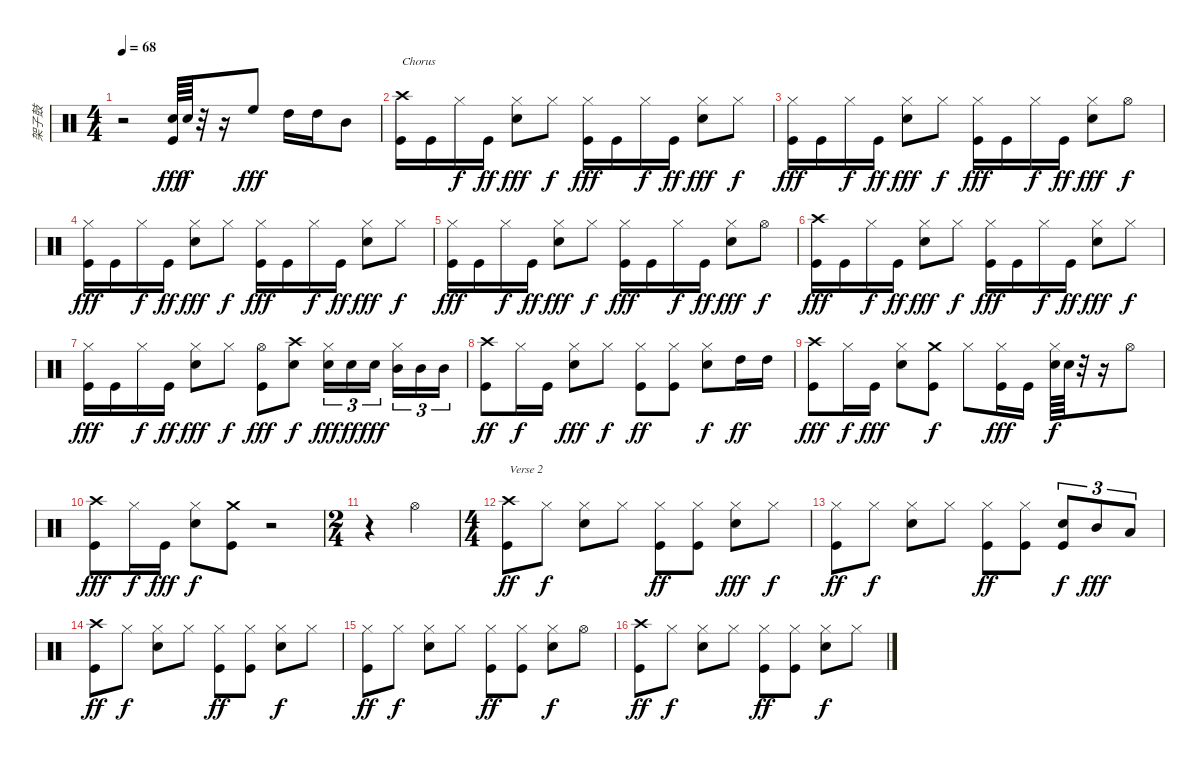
\track ("架子鼓" "架子鼓") {instrument percussion}
\staff {score}
\articulation defaults
\ts (4 4)
\tempo 68
\clef neutral
\ks c
r.2{dy f} ("Snare (hit) 2" "Kick (hit)").64{dy fff} "Snare (hit) 2".64{dy f} r.32 r.16 "High Floor Tom (hit)".8{dy fff} "High Tom (hit)".16 "High Tom (hit)".16 "Mid Tom (hit)".8 |
("Crash high (hit)" "Kick (hit)").16{txt "Chorus"} "Kick (hit)".16 "Hi-Hat (closed)".16{dy f} "Kick (hit)".16{dy ff} ("Hi-Hat (closed)" "Snare (hit) 2").8{dy fff} "Hi-Hat (closed)".8{dy f} ("Hi-Hat (closed)" "Kick (hit)").16{dy fff} "Kick (hit)".16 "Hi-Hat (closed)".16{dy f} "Kick (hit)".16{dy ff} ("Hi-Hat (closed)" "Snare (hit) 2").8{dy fff} "Hi-Hat (closed)".8{dy f} |
("Hi-Hat (closed)" "Kick (hit)").16{dy fff} "Kick (hit)".16 "Hi-Hat (closed)".16{dy f} "Kick (hit)".16{dy ff} ("Hi-Hat (closed)" "Snare (hit) 2").8{dy fff} "Hi-Hat (closed)".8{dy f} ("Hi-Hat (closed)" "Kick (hit)").16{dy fff} "Kick (hit)".16 "Hi-Hat (closed)".16{dy f} "Kick (hit)".16{dy ff} ("Hi-Hat (closed)" "Snare (hit) 2").8{dy fff} "Hi-Hat (open)".8{dy f} |
("Hi-Hat (closed)" "Kick (hit)").16{dy fff} "Kick (hit)".16 "Hi-Hat (closed)".16{dy f} "Kick (hit)".16{dy ff} ("Hi-Hat (closed)" "Snare (hit) 2").8{dy fff} "Hi-Hat (closed)".8{dy f} ("Hi-Hat (closed)" "Kick (hit)").16{dy fff} "Kick (hit)".16 "Hi-Hat (closed)".16{dy f} "Kick (hit)".16{dy ff} ("Hi-Hat (closed)" "Snare (hit) 2").8{dy fff} "Hi-Hat (closed)".8{dy f} |
("Hi-Hat (closed)" "Kick (hit)").16{dy fff} "Kick (hit)".16 "Hi-Hat (closed)".16{dy f} "Kick (hit)".16{dy ff} ("Hi-Hat (closed)" "Snare (hit) 2").8{dy fff} "Hi-Hat (closed)".8{dy f} ("Hi-Hat (closed)" "Kick (hit)").16{dy fff} "Kick (hit)".16 "Hi-Hat (closed)".16{dy f} "Kick (hit)".16{dy ff} ("Hi-Hat (closed)" "Snare (hit) 2").8{dy fff} "Hi-Hat (open)".8{dy f} |
("Crash high (hit)" "Kick (hit)").16{dy fff} "Kick (hit)".16 "Hi-Hat (closed)".16{dy f} "Kick (hit)".16{dy ff} ("Hi-Hat (closed)" "Snare (hit) 2").8{dy fff} "Hi-Hat (closed)".8{dy f} ("Hi-Hat (closed)" "Kick (hit)").16{dy fff} "Kick (hit)".16 "Hi-Hat (closed)".16{dy f} "Kick (hit)".16{dy ff} ("Hi-Hat (closed)" "Snare (hit) 2").8{dy fff} "Hi-Hat (closed)".8{dy f} |
("Hi-Hat (closed)" "Kick (hit)").16{dy fff} "Kick (hit)".16 "Hi-Hat (closed)".16{dy f} "Kick (hit)".16{dy ff} ("Hi-Hat (closed)" "Snare (hit) 2").8{dy fff} "Hi-Hat (closed)".8{dy f} ("Hi-Hat (open)" "Kick (hit)").8{dy fff} ("Crash high (hit)" "Snare (hit) 2").8{dy f} ("Hi-Hat (closed)" "Snare (hit) 2").16{tu (3 2) dy fff} "Snare (hit) 2".16{tu (3 2) dy ff} "Snare (hit) 2".16{tu (3 2) dy fff} ("Hi-Hat (closed)" "Mid Tom (hit)").16{tu (3 2)} "Mid Tom (hit)".16{tu (3 2)} "Mid Tom (hit)".16{tu (3 2)} |
("Crash high (hit)" "Kick (hit)").8{dy ff} "Hi-Hat (closed)".16{dy f} "Kick (hit)".16 ("Hi-Hat (closed)" "Snare (hit) 2").8{dy fff} "Hi-Hat (closed)".8{dy f} ("Hi-Hat (closed)" "Kick (hit)").8{dy ff} ("Hi-Hat (closed)" "Kick (hit)").8 ("Hi-Hat (closed)" "Snare (hit) 2").8{dy f} "High Tom (hit)".16{dy ff} "High Tom (hit)".16 |
("Crash high (hit)" "Kick (hit)").8{dy fff} "Hi-Hat (closed)".16{dy f} "Kick (hit)".16{dy fff} ("Hi-Hat (closed)" "Snare (hit) 2").8 ("Crash medium (hit)" "Kick (hit)").8{dy f} "Hi-Hat (closed)".8 ("Hi-Hat (closed)" "Kick (hit)").16{dy fff} "Kick (hit)".16 ("Hi-Hat (closed)" "Snare (hit) 2").64{dy f} "Snare (hit) 2".64 r.32 r.16 "Hi-Hat (open)".8 |
("Crash high (hit)" "Kick (hit)").8{dy fff} "Hi-Hat (closed)".16{dy f} "Kick (hit)".16{dy fff} ("Hi-Hat (closed)" "Snare (hit) 2").8{dy f} ("Crash medium (hit)" "Kick (hit)").8 r.2 |
\ts (2 4)
r.4 "Hi-Hat (open)".4 |
\ts (4 4)
("Crash high (hit)" "Kick (hit)").8{txt "Verse 2" dy ff} "Hi-Hat (closed)".8{dy f} ("Hi-Hat (closed)" "Snare (hit) 2").8 "Hi-Hat (closed)".8 ("Hi-Hat (closed)" "Kick (hit)").8{dy ff} ("Hi-Hat (closed)" "Kick (hit)").8 ("Hi-Hat (closed)" "Snare (hit) 2").8{dy fff} "Hi-Hat (closed)".8{dy f} |
("Hi-Hat (closed)" "Kick (hit)").8{dy ff} "Hi-Hat (closed)".8{dy f} ("Hi-Hat (closed)" "Snare (hit) 2").8 "Hi-Hat (closed)".8 ("Hi-Hat (closed)" "Kick (hit)").8{dy ff} ("Hi-Hat (closed)" "Kick (hit)").8 ("Snare (hit) 2" "Kick (hit)").8{tu (3 2) dy f} "Mid Tom (hit)".8{tu (3 2) dy fff} "Low Tom (hit)".8{tu (3 2)} |
("Crash high (hit)" "Kick (hit)").8{dy ff} "Hi-Hat (closed)".8{dy f} ("Hi-Hat (closed)" "Snare (hit) 2").8 "Hi-Hat (closed)".8 ("Hi-Hat (closed)" "Kick (hit)").8{dy ff} ("Hi-Hat (closed)" "Kick (hit)").8 ("Hi-Hat (closed)" "Snare (hit) 2").8{dy f} "Hi-Hat (closed)".8 |
("Hi-Hat (closed)" "Kick (hit)").8{dy ff} "Hi-Hat (closed)".8{dy f} ("Hi-Hat (closed)" "Snare (hit) 2").8 "Hi-Hat (closed)".8 ("Hi-Hat (closed)" "Kick (hit)").8{dy ff} ("Hi-Hat (closed)" "Kick (hit)").8 ("Hi-Hat (closed)" "Snare (hit) 2").8{dy f} "Hi-Hat (open)".8 |
("Crash high (hit)" "Kick (hit)").8{dy ff} "Hi-Hat (closed)".8{dy f} ("Hi-Hat (closed)" "Snare (hit) 2").8 "Hi-Hat (closed)".8 ("Hi-Hat (closed)" "Kick (hit)").8{dy ff} ("Hi-Hat (closed)" "Kick (hit)").8 ("Hi-Hat (closed)" "Snare (hit) 2").8{dy f} "Hi-Hat (closed)".8
